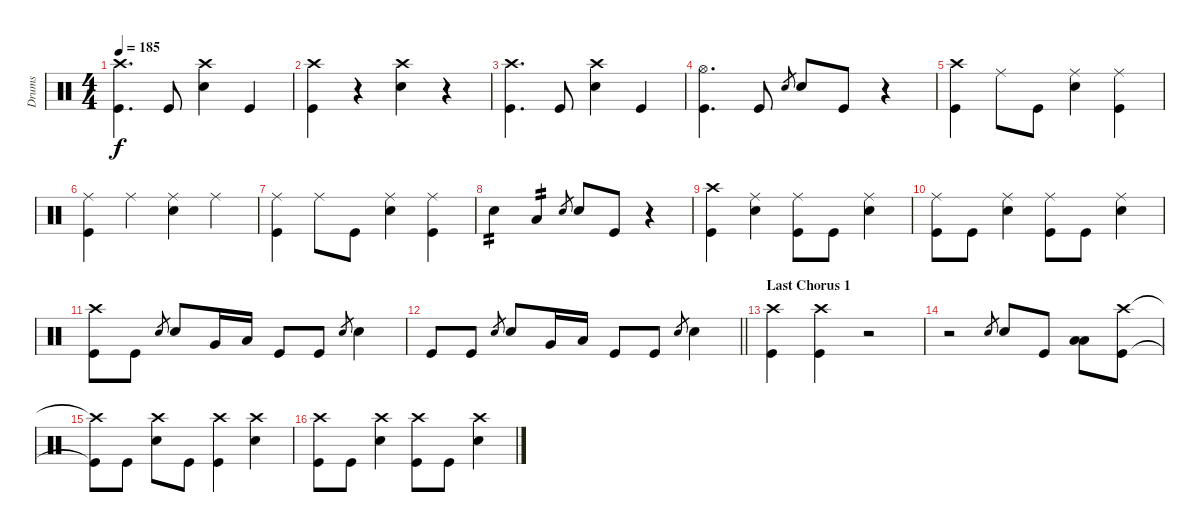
\track ("Drums" "Drums") {instrument percussion}
\staff {score}
\articulation defaults
\ts (4 4)
\tempo 185
\clef neutral
\ks c
("Crash high (hit)" "Kick (hit)").4{d dy f} "Kick (hit)".8 ("Crash high (hit)" "Snare (hit) 2").4 "Kick (hit)".4 |
("Crash high (hit)" "Kick (hit)").4 r.4 ("Crash high (hit)" "Snare (hit) 2").4 r.4 |
("Crash high (hit)" "Kick (hit)").4{d} "Kick (hit)".8 ("Crash high (hit)" "Snare (hit) 2").4 "Kick (hit)".4 |
("Hi-Hat (open)" "Kick (hit)").4{d} "Kick (hit)".8 "Snare (hit) 2".8{gr} "Snare (hit) 2".8 "Kick (hit)".8 r.4 |
("Crash high (hit)" "Kick (hit)").4 "Ride (middle)".8 "Kick (hit)".8 ("Ride (middle)" "Snare (hit) 2").4 ("Ride (middle)" "Kick (hit)").4 |
("Ride (middle)" "Kick (hit)").4 "Ride (middle)".4 ("Ride (middle)" "Snare (hit) 2").4 "Ride (middle)".4 |
("Ride (middle)" "Kick (hit)").4 "Ride (middle)".8 "Kick (hit)".8 ("Ride (middle)" "Snare (hit) 2").4 ("Ride (middle)" "Kick (hit)").4 |
"Snare (hit) 2".4{tp 2} "Low Tom (hit)".4{tp 2} "Snare (hit) 2".8{gr} "Snare (hit) 2".8 "Kick (hit)".8 r.4 |
("Crash high (hit)" "Kick (hit)").4 ("Ride (middle)" "Snare (hit) 2").4 ("Ride (middle)" "Kick (hit)").8 "Kick (hit)".8 ("Ride (middle)" "Snare (hit) 2").4 |
("Ride (middle)" "Kick (hit)").8 "Kick (hit)".8 ("Ride (middle)" "Snare (hit) 2").4 ("Ride (middle)" "Kick (hit)").8 "Kick (hit)".8 ("Ride (middle)" "Snare (hit) 2").4 |
("Crash high (hit)" "Kick (hit)").8 "Kick (hit)".8 "Snare (hit) 2".8{gr} "Snare (hit) 2".8 "Very Low Tom (hit)".16 "Low Floor Tom (hit)".16 "Kick (hit)".8 "Kick (hit)".8 "Snare (hit) 2".8{gr} "Snare (hit) 2".4 |
\barLineRight lightlight "Kick (hit)".8 "Kick (hit)".8 "Snare (hit) 2".8{gr} "Snare (hit) 2".8 "Very Low Tom (hit)".16 "Low Floor Tom (hit)".16 "Kick (hit)".8 "Kick (hit)".8 "Snare (hit) 2".8{gr} "Snare (hit) 2".4
|
\section ("" "Last Chorus 1")
("Crash high (hit)" "Kick (hit)").4 ("Crash high (hit)" "Kick (hit)").4 r.2 |
r.2 "Snare (hit) 2".8{gr} "Snare (hit) 2".8 "Kick (hit)".8 ("Low Tom (hit)" "Low Floor Tom (hit)").8 ("Crash high (hit)" "Kick (hit)").8 |
("Crash high (hit)"{t} "Kick (hit)"{t}).8 "Kick (hit)".8 ("Crash high (hit)" "Snare (hit) 2").8 "Kick (hit)".8 ("Crash high (hit)" "Kick (hit)").4 ("Crash high (hit)" "Snare (hit) 2").4 |
("Crash high (hit)" "Kick (hit)").8 "Kick (hit)".8 ("Crash high (hit)" "Snare (hit) 2").4 ("Crash high (hit)" "Kick (hit)").8 "Kick (hit)".8 ("Crash high (hit)" "Snare (hit) 2").4
